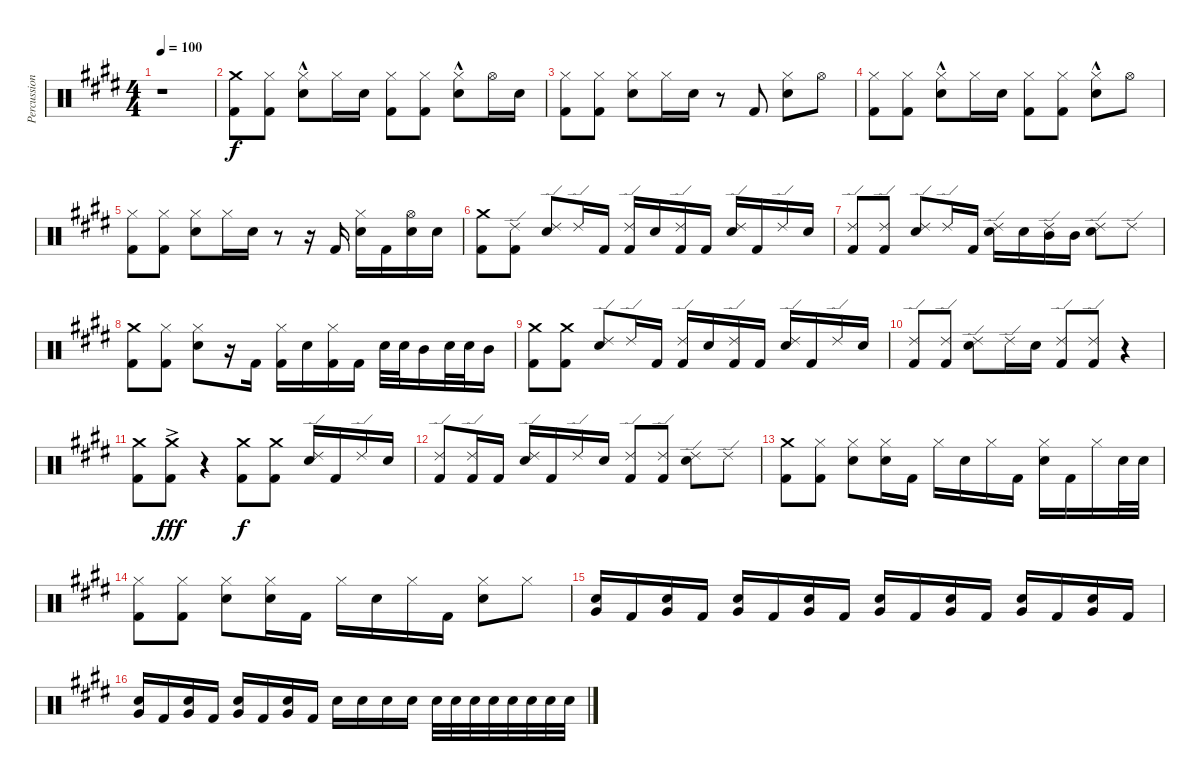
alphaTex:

\track ("Percussion" "Percussion") {instrument percussion}
\staff {score}
\articulation defaults
\ts (4 4)
\tempo 100
\clef neutral
\ks e
r.1{dy f} |
("Crash medium (hit)" "Kick (hit) 2").8 ("Hi-Hat (closed)" "Kick (hit) 2").8 ("Hi-Hat (closed)" "Snare (hit) 2"{hac}).8 "Hi-Hat (closed)".16 "Snare (hit) 2".16 ("Hi-Hat (closed)" "Kick (hit) 2").8 ("Hi-Hat (closed)" "Kick (hit) 2").8 ("Hi-Hat (closed)" "Snare (hit) 2"{hac}).8 "Hi-Hat (open)".16 "Snare (hit) 2".16 |
("Hi-Hat (closed)" "Kick (hit) 2").8 ("Hi-Hat (closed)" "Kick (hit) 2").8 ("Hi-Hat (closed)" "Snare (hit) 2").8 "Hi-Hat (closed)".16 "Snare (hit) 2".16 r.8 "Kick (hit) 2".8 ("Hi-Hat (closed)" "Snare (hit) 2").8 "Hi-Hat (open)".8 |
("Hi-Hat (closed)" "Kick (hit) 2").8 ("Hi-Hat (closed)" "Kick (hit) 2").8 ("Hi-Hat (closed)" "Snare (hit) 2"{hac}).8 "Hi-Hat (closed)".16 "Snare (hit) 2".16 ("Hi-Hat (closed)" "Kick (hit) 2").8 ("Hi-Hat (closed)" "Kick (hit) 2").8 ("Hi-Hat (closed)" "Snare (hit) 2"{hac}).8 "Hi-Hat (open)".8 |
("Hi-Hat (closed)" "Kick (hit) 2").8 ("Hi-Hat (closed)" "Kick (hit) 2").8 ("Hi-Hat (closed)" "Snare (hit) 2").8 "Hi-Hat (closed)".16 "Snare (hit) 2".16 r.8 r.16 "Kick (hit) 2".16 ("Hi-Hat (closed)" "Snare (hit) 2").16 "Kick (hit) 2".16 ("Hi-Hat (open)" "Snare (hit) 2").16 "Snare (hit) 2".16 |
("Crash medium (hit)" "Kick (hit) 2").8 ("Ride (edge) 2" "Kick (hit) 2").8 ("Ride (edge) 2" "Snare (hit) 2").8 "Ride (edge) 2".16 "Kick (hit) 2".16 ("Ride (edge) 2" "Kick (hit) 2").16 "Snare (hit) 2".16 ("Ride (edge) 2" "Kick (hit) 2").16 "Kick (hit) 2".16 ("Ride (edge) 2" "Snare (hit) 2").16 "Kick (hit) 2".16 "Ride (edge) 2".16 "Snare (hit) 2".16 |
("Ride (edge) 2" "Kick (hit) 2").8 ("Ride (edge) 2" "Kick (hit) 2").8 ("Ride (edge) 2" "Snare (hit) 2").8 "Ride (edge) 2".16 "Kick (hit) 2".16 ("Ride (edge) 2" "Snare (hit) 2").16 "Snare (hit) 2".16 ("Ride (edge) 2" "Mid Tom (hit)").16 "Mid Tom (hit)".16 ("Ride (edge) 2" "Snare (hit) 2").8 "Ride (edge) 2".8 |
("Crash medium (hit)" "Kick (hit) 2").8 ("Hi-Hat (closed)" "Kick (hit) 2").8 ("Hi-Hat (closed)" "Snare (hit) 2").8 r.16 "Kick (hit) 2".16 ("Hi-Hat (closed)" "Kick (hit) 2").16 "Snare (hit) 2".16 ("Hi-Hat (closed)" "Kick (hit) 2").16 "Kick (hit) 2".16 "Snare (hit) 2".32 "Snare (hit) 2".32 "Mid Tom (hit)".16 "Snare (hit) 2".32 "Snare (hit) 2".32 "Mid Tom (hit)".16 |
("Crash medium (hit)" "Kick (hit) 2").8 ("Crash medium (hit)" "Kick (hit) 2").8 ("Ride (edge) 2" "Snare (hit) 2").8 "Ride (edge) 2".16 "Kick (hit) 2".16 ("Ride (edge) 2" "Kick (hit) 2").16 "Snare (hit) 2".16 ("Ride (edge) 2" "Kick (hit) 2").16 "Kick (hit) 2".16 ("Ride (edge) 2" "Snare (hit) 2").16 "Kick (hit) 2".16 "Ride (edge) 2".16 "Snare (hit) 2".16 |
("Ride (edge) 2" "Kick (hit) 2").8 ("Ride (edge) 2" "Kick (hit) 2").8 ("Ride (edge) 2" "Snare (hit) 2").8 "Ride (edge) 2".16 "Snare (hit) 2".16 ("Ride (edge) 2" "Kick (hit) 2").8 ("Ride (edge) 2" "Kick (hit) 2").8 r.4 |
("Crash medium (hit)" "Kick (hit) 2").8 ("Crash medium (hit)"{ac} "Kick (hit) 2").8{dy fff} r.4 ("Crash medium (hit)" "Kick (hit) 2").8{dy f} ("Crash medium (hit)" "Kick (hit) 2").8 ("Ride (edge) 2" "Snare (hit) 2").16 "Kick (hit) 2".16 "Ride (edge) 2".16 "Snare (hit) 2".16 |
("Ride (edge) 2" "Kick (hit) 2").8 ("Ride (edge) 2" "Kick (hit) 2").16 "Kick (hit) 2".16 ("Ride (edge) 2" "Snare (hit) 2").16 "Kick (hit) 2".16 "Ride (edge) 2".16 "Snare (hit) 2".16 ("Ride (edge) 2" "Kick (hit) 2").8 ("Ride (edge) 2" "Kick (hit) 2").8 ("Ride (edge) 2" "Snare (hit) 2").8 "Ride (edge) 2".8 |
("Crash medium (hit)" "Kick (hit) 2").8 ("Hi-Hat (closed)" "Kick (hit) 2").8 ("Hi-Hat (closed)" "Snare (hit) 2").8 ("Hi-Hat (closed)" "Snare (hit) 2").16 "Kick (hit) 2".16 "Hi-Hat (closed)".16 "Snare (hit) 2".16 "Hi-Hat (closed)".16 "Kick (hit) 2".16 ("Hi-Hat (closed)" "Snare (hit) 2").16 "Kick (hit) 2".16 "Hi-Hat (closed)".16 "Snare (hit) 2".32 "Snare (hit) 2".32 |
("Hi-Hat (closed)" "Kick (hit) 2").8 ("Hi-Hat (closed)" "Kick (hit) 2").8 ("Hi-Hat (closed)" "Snare (hit) 2").8 ("Hi-Hat (closed)" "Snare (hit) 2").16 "Kick (hit) 2".16 "Hi-Hat (closed)".16 "Snare (hit) 2".16 "Hi-Hat (closed)".16 "Kick (hit) 2".16 ("Hi-Hat (closed)" "Snare (hit) 2").8 "Hi-Hat (closed)".8 |
("Very Low Tom (hit)" "Snare (hit) 2").16 "Kick (hit) 2".16 ("Very Low Tom (hit)" "Snare (hit) 2").16 "Kick (hit) 2".16 ("Very Low Tom (hit)" "Snare (hit) 2").16 "Kick (hit) 2".16 ("Very Low Tom (hit)" "Snare (hit) 2").16 "Kick (hit) 2".16 ("Very Low Tom (hit)" "Snare (hit) 2").16 "Kick (hit) 2".16 ("Very Low Tom (hit)" "Snare (hit) 2").16 "Kick (hit) 2".16 ("Very Low Tom (hit)" "Snare (hit) 2").16 "Kick (hit) 2".16 ("Very Low Tom (hit)" "Snare (hit) 2").16 "Kick (hit) 2".16 |
("Very Low Tom (hit)" "Snare (hit) 2").16 "Kick (hit) 2".16 ("Very Low Tom (hit)" "Snare (hit) 2").16 "Kick (hit) 2".16 ("Very Low Tom (hit)" "Snare (hit) 2").16 "Kick (hit) 2".16 ("Very Low Tom (hit)" "Snare (hit) 2").16 "Kick (hit) 2".16 "Snare (hit) 2".16 "Snare (hit) 2".16 "Snare (hit) 2".16 "Snare (hit) 2".16 "Snare (hit) 2".32 "Snare (hit) 2".32 "Snare (hit) 2".32 "Snare (hit) 2".32 "Snare (hit) 2".32 "Snare (hit) 2".32 "Snare (hit) 2".32 "Snare (hit) 2".32
